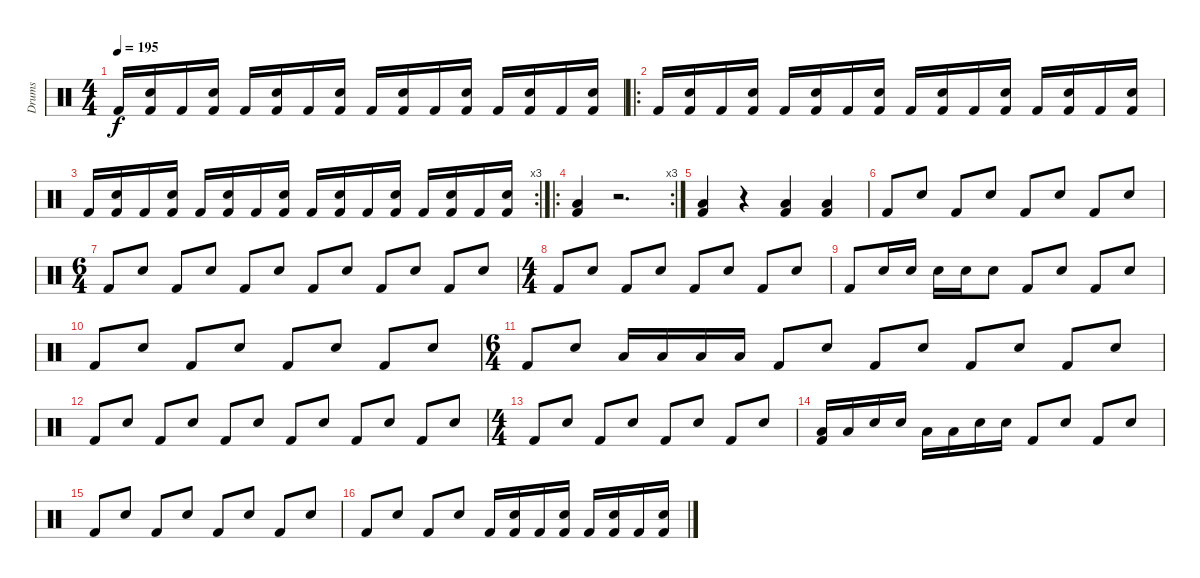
\track ("Drums" "Drums") {instrument percussion}
\staff {score}
\articulation defaults
\ts (4 4)
\tempo 195
\clef neutral
\ks c "Kick (hit) 2".16{dy f}
("Electric Snare (hit)" "Kick (hit) 2").16 "Kick (hit) 2".16 ("Electric Snare (hit)" "Kick (hit) 2").16 "Kick (hit) 2".16 ("Electric Snare (hit)" "Kick (hit) 2").16 "Kick (hit) 2".16 ("Electric Snare (hit)" "Kick (hit) 2").16 "Kick (hit) 2".16 ("Electric Snare (hit)" "Kick (hit) 2").16 "Kick (hit) 2".16 ("Electric Snare (hit)" "Kick (hit) 2").16 "Kick (hit) 2".16 ("Electric Snare (hit)" "Kick (hit) 2").16 "Kick (hit) 2".16 ("Electric Snare (hit)" "Kick (hit) 2").16 |
\ro "Kick (hit) 2".16
("Electric Snare (hit)" "Kick (hit) 2").16 "Kick (hit) 2".16 ("Electric Snare (hit)" "Kick (hit) 2").16 "Kick (hit) 2".16 ("Electric Snare (hit)" "Kick (hit) 2").16 "Kick (hit) 2".16 ("Electric Snare (hit)" "Kick (hit) 2").16 "Kick (hit) 2".16 ("Electric Snare (hit)" "Kick (hit) 2").16 "Kick (hit) 2".16 ("Electric Snare (hit)" "Kick (hit) 2").16 "Kick (hit) 2".16 ("Electric Snare (hit)" "Kick (hit) 2").16 "Kick (hit) 2".16 ("Electric Snare (hit)" "Kick (hit) 2").16 |
\rc 3 "Kick (hit) 2".16
("Electric Snare (hit)" "Kick (hit) 2").16 "Kick (hit) 2".16 ("Electric Snare (hit)" "Kick (hit) 2").16 "Kick (hit) 2".16 ("Electric Snare (hit)" "Kick (hit) 2").16 "Kick (hit) 2".16 ("Electric Snare (hit)" "Kick (hit) 2").16 "Kick (hit) 2".16 ("Electric Snare (hit)" "Kick (hit) 2").16 "Kick (hit) 2".16 ("Electric Snare (hit)" "Kick (hit) 2").16 "Kick (hit) 2".16 ("Electric Snare (hit)" "Kick (hit) 2").16 "Kick (hit) 2".16 ("Electric Snare (hit)" "Kick (hit) 2").16 |
\ro
\rc 3
("Low Floor Tom (hit)" "Kick (hit) 2").4 r.2{d} |
("Low Floor Tom (hit)" "Kick (hit) 2").4 r.4 ("Low Floor Tom (hit)" "Kick (hit) 2").4 ("Low Floor Tom (hit)" "Kick (hit) 2").4 |
"Kick (hit) 2".8 "Electric Snare (hit)".8 "Kick (hit) 2".8 "Electric Snare (hit)".8 "Kick (hit) 2".8 "Electric Snare (hit)".8 "Kick (hit) 2".8 "Electric Snare (hit)".8 |
\ts (6 4)
"Kick (hit) 2".8 "Electric Snare (hit)".8 "Kick (hit) 2".8 "Electric Snare (hit)".8 "Kick (hit) 2".8 "Electric Snare (hit)".8 "Kick (hit) 2".8 "Electric Snare (hit)".8 "Kick (hit) 2".8 "Electric Snare (hit)".8 "Kick (hit) 2".8 "Electric Snare (hit)".8 |
\ts (4 4)
"Kick (hit) 2".8 "Electric Snare (hit)".8 "Kick (hit) 2".8 "Electric Snare (hit)".8 "Kick (hit) 2".8 "Electric Snare (hit)".8 "Kick (hit) 2".8 "Electric Snare (hit)".8 |
"Kick (hit) 2".8 "Electric Snare (hit)".16 "Electric Snare (hit)".16 "Electric Snare (hit)".16 "Electric Snare (hit)".16 "Electric Snare (hit)".8 "Kick (hit) 2".8 "Electric Snare (hit)".8 "Kick (hit) 2".8 "Electric Snare (hit)".8 |
"Kick (hit) 2".8 "Electric Snare (hit)".8 "Kick (hit) 2".8 "Electric Snare (hit)".8 "Kick (hit) 2".8 "Electric Snare (hit)".8 "Kick (hit) 2".8 "Electric Snare (hit)".8 |
\ts (6 4)
"Kick (hit) 2".8 "Electric Snare (hit)".8 "Low Tom (hit)".16 "Low Tom (hit)".16 "Low Tom (hit)".16 "Low Tom (hit)".16 "Kick (hit) 2".8 "Electric Snare (hit)".8 "Kick (hit) 2".8 "Electric Snare (hit)".8 "Kick (hit) 2".8 "Electric Snare (hit)".8 "Kick (hit) 2".8 "Electric Snare (hit)".8 |
"Kick (hit) 2".8 "Electric Snare (hit)".8 "Kick (hit) 2".8 "Electric Snare (hit)".8 "Kick (hit) 2".8 "Electric Snare (hit)".8 "Kick (hit) 2".8 "Electric Snare (hit)".8 "Kick (hit) 2".8 "Electric Snare (hit)".8 "Kick (hit) 2".8 "Electric Snare (hit)".8 |
\ts (4 4)
"Kick (hit) 2".8 "Electric Snare (hit)".8 "Kick (hit) 2".8 "Electric Snare (hit)".8 "Kick (hit) 2".8 "Electric Snare (hit)".8 "Kick (hit) 2".8 "Electric Snare (hit)".8 |
("Low Tom (hit)" "Kick (hit) 2").16 "Low Tom (hit)".16 "Electric Snare (hit)".16 "Electric Snare (hit)".16 "Low Tom (hit)".16 "Low Tom (hit)".16 "Electric Snare (hit)".16 "Electric Snare (hit)".16 "Kick (hit) 2".8 "Electric Snare (hit)".8 "Kick (hit) 2".8 "Electric Snare (hit)".8 |
"Kick (hit) 2".8 "Electric Snare (hit)".8 "Kick (hit) 2".8 "Electric Snare (hit)".8 "Kick (hit) 2".8 "Electric Snare (hit)".8 "Kick (hit) 2".8 "Electric Snare (hit)".8 |
"Kick (hit) 2".8 "Electric Snare (hit)".8 "Kick (hit) 2".8 "Electric Snare (hit)".8 "Kick (hit) 2".16 ("Electric Snare (hit)" "Kick (hit) 2").16 "Kick (hit) 2".16 ("Electric Snare (hit)" "Kick (hit) 2").16 "Kick (hit) 2".16 ("Electric Snare (hit)" "Kick (hit) 2").16 "Kick (hit) 2".16 ("Electric Snare (hit)" "Kick (hit) 2").16
